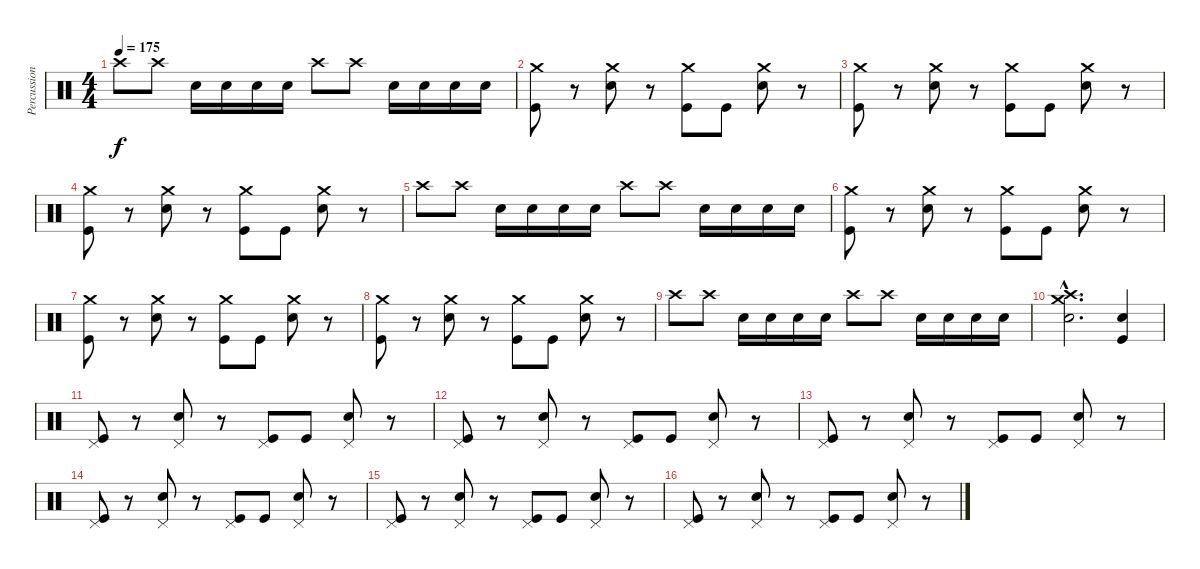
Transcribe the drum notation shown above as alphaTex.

\track ("Percussion" "Percussion") {instrument percussion}
\staff {score}
\articulation defaults
\ts (4 4)
\tempo 175
\clef neutral
\ks c "Crash high (hit)".8{dy f} "Crash high (hit)".8 "Electric Snare (hit)".16 "Electric Snare (hit)".16 "Electric Snare (hit)".16 "Electric Snare (hit)".16 "Crash high (hit)".8 "Crash high (hit)".8 "Electric Snare (hit)".16 "Electric Snare (hit)".16 "Electric Snare (hit)".16 "Electric Snare (hit)".16
|
("Crash medium (hit)" "Kick (hit)").8 r.8 ("Crash medium (hit)" "Electric Snare (hit)").8 r.8 ("Crash medium (hit)" "Kick (hit)").8 "Kick (hit)".8 ("Crash medium (hit)" "Electric Snare (hit)").8 r.8 |
("Crash medium (hit)" "Kick (hit)").8 r.8 ("Crash medium (hit)" "Electric Snare (hit)").8 r.8 ("Crash medium (hit)" "Kick (hit)").8 "Kick (hit)".8 ("Crash medium (hit)" "Electric Snare (hit)").8 r.8 |
("Crash medium (hit)" "Kick (hit)").8 r.8 ("Crash medium (hit)" "Electric Snare (hit)").8 r.8 ("Crash medium (hit)" "Kick (hit)").8 "Kick (hit)".8 ("Crash medium (hit)" "Electric Snare (hit)").8 r.8 |
"Crash high (hit)".8 "Crash high (hit)".8 "Electric Snare (hit)".16 "Electric Snare (hit)".16 "Electric Snare (hit)".16 "Electric Snare (hit)".16 "Crash high (hit)".8 "Crash high (hit)".8 "Electric Snare (hit)".16 "Electric Snare (hit)".16 "Electric Snare (hit)".16 "Electric Snare (hit)".16 |
("Crash medium (hit)" "Kick (hit)").8 r.8 ("Crash medium (hit)" "Electric Snare (hit)").8 r.8 ("Crash medium (hit)" "Kick (hit)").8 "Kick (hit)".8 ("Crash medium (hit)" "Electric Snare (hit)").8 r.8 |
("Crash medium (hit)" "Kick (hit)").8 r.8 ("Crash medium (hit)" "Electric Snare (hit)").8 r.8 ("Crash medium (hit)" "Kick (hit)").8 "Kick (hit)".8 ("Crash medium (hit)" "Electric Snare (hit)").8 r.8 |
("Crash medium (hit)" "Kick (hit)").8 r.8 ("Crash medium (hit)" "Electric Snare (hit)").8 r.8 ("Crash medium (hit)" "Kick (hit)").8 "Kick (hit)".8 ("Crash medium (hit)" "Electric Snare (hit)").8 r.8 |
"Crash high (hit)".8 "Crash high (hit)".8 "Electric Snare (hit)".16 "Electric Snare (hit)".16 "Electric Snare (hit)".16 "Electric Snare (hit)".16 "Crash high (hit)".8 "Crash high (hit)".8 "Electric Snare (hit)".16 "Electric Snare (hit)".16 "Electric Snare (hit)".16 "Electric Snare (hit)".16 |
("Crash high (hit)"{hac} "Crash medium (hit)"{hac} "Electric Snare (hit)"{hac}).2{d} ("Snare (hit) 2" "Kick (hit)").4 |
("Pedal Hi-Hat (hit)" "Kick (hit)").8 r.8 ("Pedal Hi-Hat (hit)" "Electric Snare (hit)").8 r.8 ("Pedal Hi-Hat (hit)" "Kick (hit)").8 "Kick (hit)".8 ("Pedal Hi-Hat (hit)" "Electric Snare (hit)").8 r.8 |
("Pedal Hi-Hat (hit)" "Kick (hit)").8 r.8 ("Pedal Hi-Hat (hit)" "Electric Snare (hit)").8 r.8 ("Pedal Hi-Hat (hit)" "Kick (hit)").8 "Kick (hit)".8 ("Pedal Hi-Hat (hit)" "Electric Snare (hit)").8 r.8 |
("Pedal Hi-Hat (hit)" "Kick (hit)").8 r.8 ("Pedal Hi-Hat (hit)" "Electric Snare (hit)").8 r.8 ("Pedal Hi-Hat (hit)" "Kick (hit)").8 "Kick (hit)".8 ("Pedal Hi-Hat (hit)" "Electric Snare (hit)").8 r.8 |
("Pedal Hi-Hat (hit)" "Kick (hit)").8 r.8 ("Pedal Hi-Hat (hit)" "Electric Snare (hit)").8 r.8 ("Pedal Hi-Hat (hit)" "Kick (hit)").8 "Kick (hit)".8 ("Pedal Hi-Hat (hit)" "Electric Snare (hit)").8 r.8 |
("Pedal Hi-Hat (hit)" "Kick (hit)").8 r.8 ("Pedal Hi-Hat (hit)" "Electric Snare (hit)").8 r.8 ("Pedal Hi-Hat (hit)" "Kick (hit)").8 "Kick (hit)".8 ("Pedal Hi-Hat (hit)" "Electric Snare (hit)").8 r.8 |
("Pedal Hi-Hat (hit)" "Kick (hit)").8 r.8 ("Pedal Hi-Hat (hit)" "Electric Snare (hit)").8 r.8 ("Pedal Hi-Hat (hit)" "Kick (hit)").8 "Kick (hit)".8 ("Pedal Hi-Hat (hit)" "Electric Snare (hit)").8 r.8
